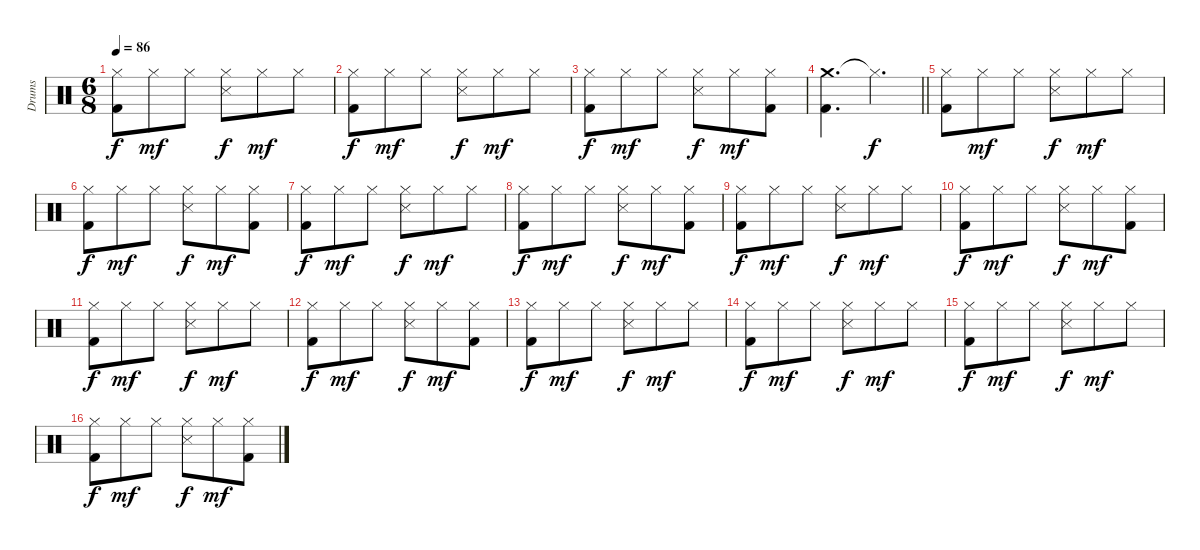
\track ("Drums" "Drums") {instrument percussion}
\staff {score}
\articulation defaults
\ts (6 8)
\tempo 86
\clef neutral
\ks c
("Hi-Hat (closed)" "Kick (hit) 2").8{dy f} "Hi-Hat (closed)".8{dy mf} "Hi-Hat (closed)".8 ("Hi-Hat (closed)" "Snare (side stick) 3").8{dy f} "Hi-Hat (closed)".8{dy mf} "Hi-Hat (closed)".8 |
("Hi-Hat (closed)" "Kick (hit) 2").8{dy f} "Hi-Hat (closed)".8{dy mf} "Hi-Hat (closed)".8 ("Hi-Hat (closed)" "Snare (side stick) 3").8{dy f} "Hi-Hat (closed)".8{dy mf} "Hi-Hat (closed)".8 |
("Hi-Hat (closed)" "Kick (hit) 2").8{dy f} "Hi-Hat (closed)".8{dy mf} "Hi-Hat (closed)".8 ("Hi-Hat (closed)" "Snare (side stick) 3").8{dy f} "Hi-Hat (closed)".8{dy mf} ("Hi-Hat (closed)" "Kick (hit) 2").8 |
\barLineRight lightlight
("Crash medium (hit)" "Kick (hit) 2").4{d} "Hi-Hat (closed)"{t}.4{d dy f} |
("Hi-Hat (closed)" "Kick (hit) 2").8 "Hi-Hat (closed)".8{dy mf} "Hi-Hat (closed)".8 ("Hi-Hat (closed)" "Snare (side stick) 3").8{dy f} "Hi-Hat (closed)".8{dy mf} "Hi-Hat (closed)".8 |
("Hi-Hat (closed)" "Kick (hit) 2").8{dy f} "Hi-Hat (closed)".8{dy mf} "Hi-Hat (closed)".8 ("Hi-Hat (closed)" "Snare (side stick) 3").8{dy f} "Hi-Hat (closed)".8{dy mf} ("Hi-Hat (closed)" "Kick (hit) 2").8 |
("Hi-Hat (closed)" "Kick (hit) 2").8{dy f} "Hi-Hat (closed)".8{dy mf} "Hi-Hat (closed)".8 ("Hi-Hat (closed)" "Snare (side stick) 3").8{dy f} "Hi-Hat (closed)".8{dy mf} "Hi-Hat (closed)".8 |
("Hi-Hat (closed)" "Kick (hit) 2").8{dy f} "Hi-Hat (closed)".8{dy mf} "Hi-Hat (closed)".8 ("Hi-Hat (closed)" "Snare (side stick) 3").8{dy f} "Hi-Hat (closed)".8{dy mf} ("Hi-Hat (closed)" "Kick (hit) 2").8 |
("Hi-Hat (closed)" "Kick (hit) 2").8{dy f} "Hi-Hat (closed)".8{dy mf} "Hi-Hat (closed)".8 ("Hi-Hat (closed)" "Snare (side stick) 3").8{dy f} "Hi-Hat (closed)".8{dy mf} "Hi-Hat (closed)".8 |
("Hi-Hat (closed)" "Kick (hit) 2").8{dy f} "Hi-Hat (closed)".8{dy mf} "Hi-Hat (closed)".8 ("Hi-Hat (closed)" "Snare (side stick) 3").8{dy f} "Hi-Hat (closed)".8{dy mf} ("Hi-Hat (closed)" "Kick (hit) 2").8 |
("Hi-Hat (closed)" "Kick (hit) 2").8{dy f} "Hi-Hat (closed)".8{dy mf} "Hi-Hat (closed)".8 ("Hi-Hat (closed)" "Snare (side stick) 3").8{dy f} "Hi-Hat (closed)".8{dy mf} "Hi-Hat (closed)".8 |
("Hi-Hat (closed)" "Kick (hit) 2").8{dy f} "Hi-Hat (closed)".8{dy mf} "Hi-Hat (closed)".8 ("Hi-Hat (closed)" "Snare (side stick) 3").8{dy f} "Hi-Hat (closed)".8{dy mf} ("Hi-Hat (closed)" "Kick (hit) 2").8 |
("Hi-Hat (closed)" "Kick (hit) 2").8{dy f} "Hi-Hat (closed)".8{dy mf} "Hi-Hat (closed)".8 ("Hi-Hat (closed)" "Snare (side stick) 3").8{dy f} "Hi-Hat (closed)".8{dy mf} "Hi-Hat (closed)".8 |
("Hi-Hat (closed)" "Kick (hit) 2").8{dy f} "Hi-Hat (closed)".8{dy mf} "Hi-Hat (closed)".8 ("Hi-Hat (closed)" "Snare (side stick) 3").8{dy f} "Hi-Hat (closed)".8{dy mf} "Hi-Hat (closed)".8 |
("Hi-Hat (closed)" "Kick (hit) 2").8{dy f} "Hi-Hat (closed)".8{dy mf} "Hi-Hat (closed)".8 ("Hi-Hat (closed)" "Snare (side stick) 3").8{dy f} "Hi-Hat (closed)".8{dy mf} "Hi-Hat (closed)".8 |
("Hi-Hat (closed)" "Kick (hit) 2").8{dy f} "Hi-Hat (closed)".8{dy mf} "Hi-Hat (closed)".8 ("Hi-Hat (closed)" "Snare (side stick) 3").8{dy f} "Hi-Hat (closed)".8{dy mf} ("Hi-Hat (closed)" "Kick (hit) 2").8
